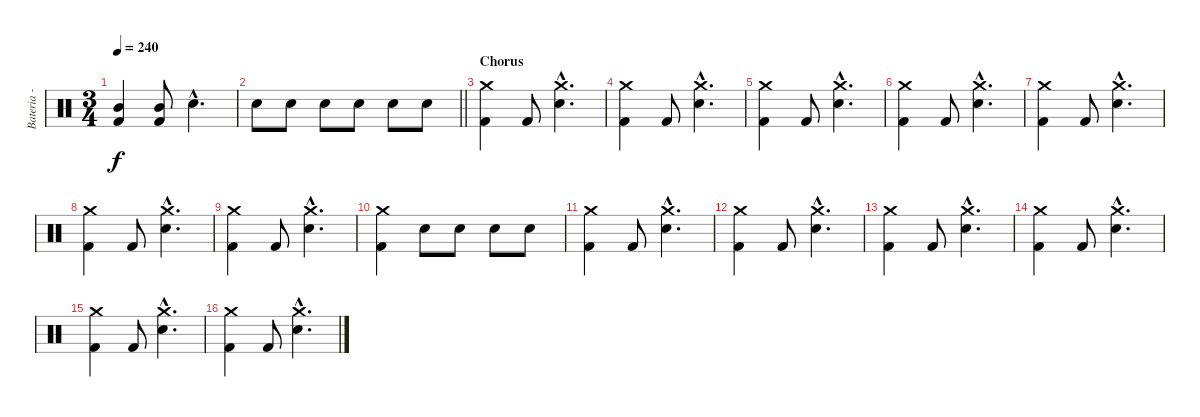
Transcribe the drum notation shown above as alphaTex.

\track ("Bateria - Larzon" "Bateria - ") {instrument percussion}
\staff {score}
\articulation defaults
\ts (3 4)
\tempo 240
\clef neutral
\ks c
("Kick (hit) 2" "Mid Tom (hit)").4{dy f} ("Kick (hit) 2" "Mid Tom (hit)").8 "Snare (hit) 2"{hac}.4{d} |
\barLineRight lightlight "Snare (hit) 2".8 "Snare (hit) 2".8 "Snare (hit) 2".8 "Snare (hit) 2".8 "Snare (hit) 2".8 "Snare (hit) 2".8
|
\section ("" "Chorus")
("Kick (hit) 2" "Crash medium (hit)").4 "Kick (hit) 2".8 ("Snare (hit) 2"{hac} "Crash medium (hit)"{hac}).4{d} |
("Kick (hit) 2" "Crash medium (hit)").4 "Kick (hit) 2".8 ("Snare (hit) 2"{hac} "Crash medium (hit)"{hac}).4{d} |
("Kick (hit) 2" "Crash medium (hit)").4 "Kick (hit) 2".8 ("Snare (hit) 2"{hac} "Crash medium (hit)"{hac}).4{d} |
("Kick (hit) 2" "Crash medium (hit)").4 "Kick (hit) 2".8 ("Snare (hit) 2"{hac} "Crash medium (hit)"{hac}).4{d} |
("Kick (hit) 2" "Crash medium (hit)").4 "Kick (hit) 2".8 ("Snare (hit) 2"{hac} "Crash medium (hit)"{hac}).4{d} |
("Kick (hit) 2" "Crash medium (hit)").4 "Kick (hit) 2".8 ("Snare (hit) 2"{hac} "Crash medium (hit)"{hac}).4{d} |
("Kick (hit) 2" "Crash medium (hit)").4 "Kick (hit) 2".8 ("Snare (hit) 2"{hac} "Crash medium (hit)"{hac}).4{d} |
("Kick (hit) 2" "Crash medium (hit)").4 "Snare (hit) 2".8 "Snare (hit) 2".8 "Snare (hit) 2".8 "Snare (hit) 2".8 |
("Kick (hit) 2" "Crash medium (hit)").4 "Kick (hit) 2".8 ("Snare (hit) 2"{hac} "Crash medium (hit)"{hac}).4{d} |
("Kick (hit) 2" "Crash medium (hit)").4 "Kick (hit) 2".8 ("Snare (hit) 2"{hac} "Crash medium (hit)"{hac}).4{d} |
("Kick (hit) 2" "Crash medium (hit)").4 "Kick (hit) 2".8 ("Snare (hit) 2"{hac} "Crash medium (hit)"{hac}).4{d} |
("Kick (hit) 2" "Crash medium (hit)").4 "Kick (hit) 2".8 ("Snare (hit) 2"{hac} "Crash medium (hit)"{hac}).4{d} |
("Kick (hit) 2" "Crash medium (hit)").4 "Kick (hit) 2".8 ("Snare (hit) 2"{hac} "Crash medium (hit)"{hac}).4{d} |
("Kick (hit) 2" "Crash medium (hit)").4 "Kick (hit) 2".8 ("Snare (hit) 2"{hac} "Crash medium (hit)"{hac}).4{d}
